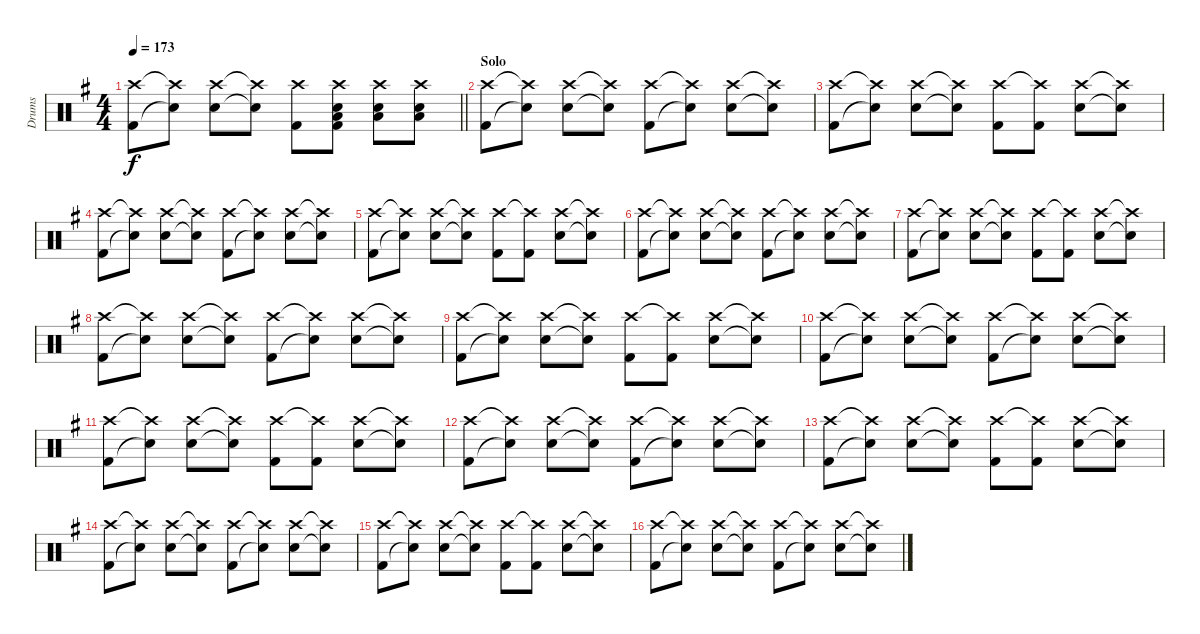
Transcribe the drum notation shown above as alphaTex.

\track ("Drums" "Drums") {instrument percussion}
\staff {score}
\articulation defaults
\ts (4 4)
\tempo 173
\clef neutral
\barLineRight lightlight
\ks g
("Kick (hit) 2" "Crash high (hit)").8{dy f} ("Snare (hit)"{t} "Crash high (hit)"{t}).8 ("Snare (hit) 2" "Crash high (hit)").8 ("Snare (hit)"{t} "Crash high (hit)"{t}).8 ("Kick (hit) 2" "Crash high (hit)").8 ("Kick (hit) 2" "Snare (hit) 2" "Low Tom (hit)" "Crash high (hit)").8 ("Snare (hit) 2" "Low Tom (hit)" "Crash high (hit)").8 ("Snare (hit) 2" "Low Tom (hit)" "Crash high (hit)").8 |
\section ("" "Solo")
("Kick (hit) 2" "Crash high (hit)").8 ("Snare (hit)"{t} "Crash high (hit)"{t}).8 ("Snare (hit) 2" "Crash high (hit)").8 ("Snare (hit)"{t} "Crash high (hit)"{t}).8 ("Kick (hit) 2" "Crash high (hit)").8 ("Snare (hit)"{t} "Crash high (hit)"{t}).8 ("Snare (hit) 2" "Crash high (hit)").8 ("Snare (hit)"{t} "Crash high (hit)"{t}).8 |
("Kick (hit) 2" "Crash high (hit)").8 ("Snare (hit)"{t} "Crash high (hit)"{t}).8 ("Snare (hit) 2" "Crash high (hit)").8 ("Snare (hit)"{t} "Crash high (hit)"{t}).8 ("Kick (hit) 2" "Crash high (hit)").8 ("Kick (hit) 2" "Crash high (hit)"{t}).8 ("Snare (hit) 2" "Crash high (hit)").8 ("Snare (hit)"{t} "Crash high (hit)"{t}).8 |
("Kick (hit) 2" "Crash high (hit)").8 ("Snare (hit)"{t} "Crash high (hit)"{t}).8 ("Snare (hit) 2" "Crash high (hit)").8 ("Snare (hit)"{t} "Crash high (hit)"{t}).8 ("Kick (hit) 2" "Crash high (hit)").8 ("Snare (hit)"{t} "Crash high (hit)"{t}).8 ("Snare (hit) 2" "Crash high (hit)").8 ("Snare (hit)"{t} "Crash high (hit)"{t}).8 |
("Kick (hit) 2" "Crash high (hit)").8 ("Snare (hit)"{t} "Crash high (hit)"{t}).8 ("Snare (hit) 2" "Crash high (hit)").8 ("Snare (hit)"{t} "Crash high (hit)"{t}).8 ("Kick (hit) 2" "Crash high (hit)").8 ("Kick (hit) 2" "Crash high (hit)"{t}).8 ("Snare (hit) 2" "Crash high (hit)").8 ("Snare (hit)"{t} "Crash high (hit)"{t}).8 |
("Kick (hit) 2" "Crash high (hit)").8 ("Snare (hit)"{t} "Crash high (hit)"{t}).8 ("Snare (hit) 2" "Crash high (hit)").8 ("Snare (hit)"{t} "Crash high (hit)"{t}).8 ("Kick (hit) 2" "Crash high (hit)").8 ("Snare (hit)"{t} "Crash high (hit)"{t}).8 ("Snare (hit) 2" "Crash high (hit)").8 ("Snare (hit)"{t} "Crash high (hit)"{t}).8 |
("Kick (hit) 2" "Crash high (hit)").8 ("Snare (hit)"{t} "Crash high (hit)"{t}).8 ("Snare (hit) 2" "Crash high (hit)").8 ("Snare (hit)"{t} "Crash high (hit)"{t}).8 ("Kick (hit) 2" "Crash high (hit)").8 ("Kick (hit) 2" "Crash high (hit)"{t}).8 ("Snare (hit) 2" "Crash high (hit)").8 ("Snare (hit)"{t} "Crash high (hit)"{t}).8 |
("Kick (hit) 2" "Crash high (hit)").8 ("Snare (hit)"{t} "Crash high (hit)"{t}).8 ("Snare (hit) 2" "Crash high (hit)").8 ("Snare (hit)"{t} "Crash high (hit)"{t}).8 ("Kick (hit) 2" "Crash high (hit)").8 ("Snare (hit)"{t} "Crash high (hit)"{t}).8 ("Snare (hit) 2" "Crash high (hit)").8 ("Snare (hit)"{t} "Crash high (hit)"{t}).8 |
("Kick (hit) 2" "Crash high (hit)").8 ("Snare (hit)"{t} "Crash high (hit)"{t}).8 ("Snare (hit) 2" "Crash high (hit)").8 ("Snare (hit)"{t} "Crash high (hit)"{t}).8 ("Kick (hit) 2" "Crash high (hit)").8 ("Kick (hit) 2" "Crash high (hit)"{t}).8 ("Snare (hit) 2" "Crash high (hit)").8 ("Snare (hit)"{t} "Crash high (hit)"{t}).8 |
("Kick (hit) 2" "Crash high (hit)").8 ("Snare (hit)"{t} "Crash high (hit)"{t}).8 ("Snare (hit) 2" "Crash high (hit)").8 ("Snare (hit)"{t} "Crash high (hit)"{t}).8 ("Kick (hit) 2" "Crash high (hit)").8 ("Snare (hit)"{t} "Crash high (hit)"{t}).8 ("Snare (hit) 2" "Crash high (hit)").8 ("Snare (hit)"{t} "Crash high (hit)"{t}).8 |
("Kick (hit) 2" "Crash high (hit)").8 ("Snare (hit)"{t} "Crash high (hit)"{t}).8 ("Snare (hit) 2" "Crash high (hit)").8 ("Snare (hit)"{t} "Crash high (hit)"{t}).8 ("Kick (hit) 2" "Crash high (hit)").8 ("Kick (hit) 2" "Crash high (hit)"{t}).8 ("Snare (hit) 2" "Crash high (hit)").8 ("Snare (hit)"{t} "Crash high (hit)"{t}).8 |
("Kick (hit) 2" "Crash high (hit)").8 ("Snare (hit)"{t} "Crash high (hit)"{t}).8 ("Snare (hit) 2" "Crash high (hit)").8 ("Snare (hit)"{t} "Crash high (hit)"{t}).8 ("Kick (hit) 2" "Crash high (hit)").8 ("Snare (hit)"{t} "Crash high (hit)"{t}).8 ("Snare (hit) 2" "Crash high (hit)").8 ("Snare (hit)"{t} "Crash high (hit)"{t}).8 |
("Kick (hit) 2" "Crash high (hit)").8 ("Snare (hit)"{t} "Crash high (hit)"{t}).8 ("Snare (hit) 2" "Crash high (hit)").8 ("Snare (hit)"{t} "Crash high (hit)"{t}).8 ("Kick (hit) 2" "Crash high (hit)").8 ("Kick (hit) 2" "Crash high (hit)"{t}).8 ("Snare (hit) 2" "Crash high (hit)").8 ("Snare (hit)"{t} "Crash high (hit)"{t}).8 |
("Kick (hit) 2" "Crash high (hit)").8 ("Snare (hit)"{t} "Crash high (hit)"{t}).8 ("Snare (hit) 2" "Crash high (hit)").8 ("Snare (hit)"{t} "Crash high (hit)"{t}).8 ("Kick (hit) 2" "Crash high (hit)").8 ("Snare (hit)"{t} "Crash high (hit)"{t}).8 ("Snare (hit) 2" "Crash high (hit)").8 ("Snare (hit)"{t} "Crash high (hit)"{t}).8 |
("Kick (hit) 2" "Crash high (hit)").8 ("Snare (hit)"{t} "Crash high (hit)"{t}).8 ("Snare (hit) 2" "Crash high (hit)").8 ("Snare (hit)"{t} "Crash high (hit)"{t}).8 ("Kick (hit) 2" "Crash high (hit)").8 ("Kick (hit) 2" "Crash high (hit)"{t}).8 ("Snare (hit) 2" "Crash high (hit)").8 ("Snare (hit)"{t} "Crash high (hit)"{t}).8 |
("Kick (hit) 2" "Crash high (hit)").8 ("Snare (hit)"{t} "Crash high (hit)"{t}).8 ("Snare (hit) 2" "Crash high (hit)").8 ("Snare (hit)"{t} "Crash high (hit)"{t}).8 ("Kick (hit) 2" "Crash high (hit)").8 ("Snare (hit)"{t} "Crash high (hit)"{t}).8 ("Snare (hit) 2" "Crash high (hit)").8 ("Snare (hit)"{t} "Crash high (hit)"{t}).8
